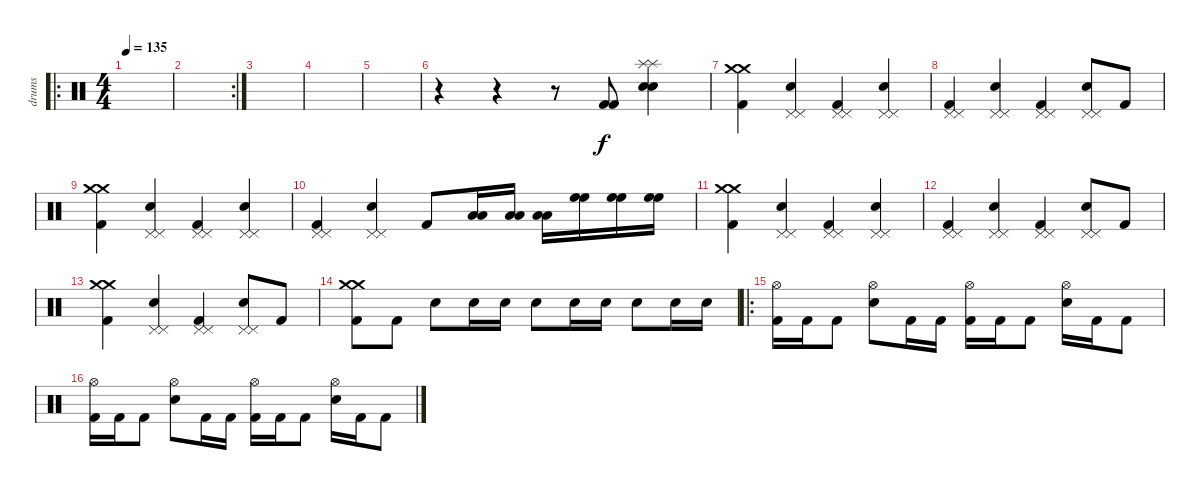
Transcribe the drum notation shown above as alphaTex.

\track ("drums" "drums") {instrument percussion}
\staff {score}
\articulation defaults
\ro
\ts (4 4)
\tempo 135
\clef neutral
\ks c
|
\rc 2
|
|
|
|
r.4 r.4 r.8 ("Kick (hit) 2" "Kick (hit) 2").8 ("Splash (hit)" "Splash (hit)" "Electric Snare (hit)" "Electric Snare (hit)").4 |
("Crash medium (hit)" "Crash medium (hit)" "Kick (hit) 2").4 ("Pedal Hi-Hat (hit)" "Pedal Hi-Hat (hit)" "Electric Snare (hit)").4 ("Pedal Hi-Hat (hit)" "Pedal Hi-Hat (hit)" "Kick (hit) 2").4 ("Pedal Hi-Hat (hit)" "Pedal Hi-Hat (hit)" "Electric Snare (hit)").4 |
("Pedal Hi-Hat (hit)" "Pedal Hi-Hat (hit)" "Kick (hit) 2").4 ("Pedal Hi-Hat (hit)" "Pedal Hi-Hat (hit)" "Electric Snare (hit)").4 ("Pedal Hi-Hat (hit)" "Pedal Hi-Hat (hit)" "Kick (hit) 2").4 ("Pedal Hi-Hat (hit)" "Pedal Hi-Hat (hit)" "Electric Snare (hit)").8 "Kick (hit) 2".8 |
("Crash medium (hit)" "Crash medium (hit)" "Kick (hit) 2").4 ("Pedal Hi-Hat (hit)" "Pedal Hi-Hat (hit)" "Electric Snare (hit)").4 ("Pedal Hi-Hat (hit)" "Pedal Hi-Hat (hit)" "Kick (hit) 2").4 ("Pedal Hi-Hat (hit)" "Pedal Hi-Hat (hit)" "Electric Snare (hit)").4 |
("Pedal Hi-Hat (hit)" "Pedal Hi-Hat (hit)" "Kick (hit) 2").4 ("Pedal Hi-Hat (hit)" "Pedal Hi-Hat (hit)" "Electric Snare (hit)").4 "Kick (hit) 2".8 ("Low Tom (hit)" "Low Tom (hit)").16 ("Low Tom (hit)" "Low Tom (hit)").16 ("Low Tom (hit)" "Low Tom (hit)").16 ("High Floor Tom (hit)" "High Floor Tom (hit)").16 ("High Floor Tom (hit)" "High Floor Tom (hit)").16 ("High Floor Tom (hit)" "High Floor Tom (hit)").16 |
("Crash medium (hit)" "Crash medium (hit)" "Kick (hit) 2").4 ("Pedal Hi-Hat (hit)" "Pedal Hi-Hat (hit)" "Electric Snare (hit)").4 ("Pedal Hi-Hat (hit)" "Pedal Hi-Hat (hit)" "Kick (hit) 2").4 ("Pedal Hi-Hat (hit)" "Pedal Hi-Hat (hit)" "Electric Snare (hit)").4 |
("Pedal Hi-Hat (hit)" "Pedal Hi-Hat (hit)" "Kick (hit) 2").4 ("Pedal Hi-Hat (hit)" "Pedal Hi-Hat (hit)" "Electric Snare (hit)").4 ("Pedal Hi-Hat (hit)" "Pedal Hi-Hat (hit)" "Kick (hit) 2").4 ("Pedal Hi-Hat (hit)" "Pedal Hi-Hat (hit)" "Electric Snare (hit)").8 "Kick (hit) 2".8 |
("Crash medium (hit)" "Crash medium (hit)" "Kick (hit) 2").4 ("Pedal Hi-Hat (hit)" "Pedal Hi-Hat (hit)" "Electric Snare (hit)").4 ("Pedal Hi-Hat (hit)" "Pedal Hi-Hat (hit)" "Kick (hit) 2").4 ("Pedal Hi-Hat (hit)" "Pedal Hi-Hat (hit)" "Electric Snare (hit)").8 "Kick (hit) 2".8 |
("Crash medium (hit)" "Crash medium (hit)" "Kick (hit) 2").8 "Kick (hit) 2".8 "Electric Snare (hit)".8 "Electric Snare (hit)".16 "Electric Snare (hit)".16 "Electric Snare (hit)".8 "Electric Snare (hit)".16 "Electric Snare (hit)".16 "Electric Snare (hit)".8 "Electric Snare (hit)".16 "Electric Snare (hit)".16 |
\ro
("Hi-Hat (open)" "Kick (hit) 2").16 "Kick (hit) 2".16 "Kick (hit) 2".8 ("Hi-Hat (open)" "Electric Snare (hit)").8 "Kick (hit) 2".16 "Kick (hit) 2".16 ("Hi-Hat (open)" "Kick (hit) 2").16 "Kick (hit) 2".16 "Kick (hit) 2".8 ("Hi-Hat (open)" "Electric Snare (hit)").16 "Kick (hit) 2".16 "Kick (hit) 2".8 |
("Hi-Hat (open)" "Kick (hit) 2").16 "Kick (hit) 2".16 "Kick (hit) 2".8 ("Hi-Hat (open)" "Electric Snare (hit)").8 "Kick (hit) 2".16 "Kick (hit) 2".16 ("Hi-Hat (open)" "Kick (hit) 2").16 "Kick (hit) 2".16 "Kick (hit) 2".8 ("Hi-Hat (open)" "Electric Snare (hit)").16 "Kick (hit) 2".16 "Kick (hit) 2".8
